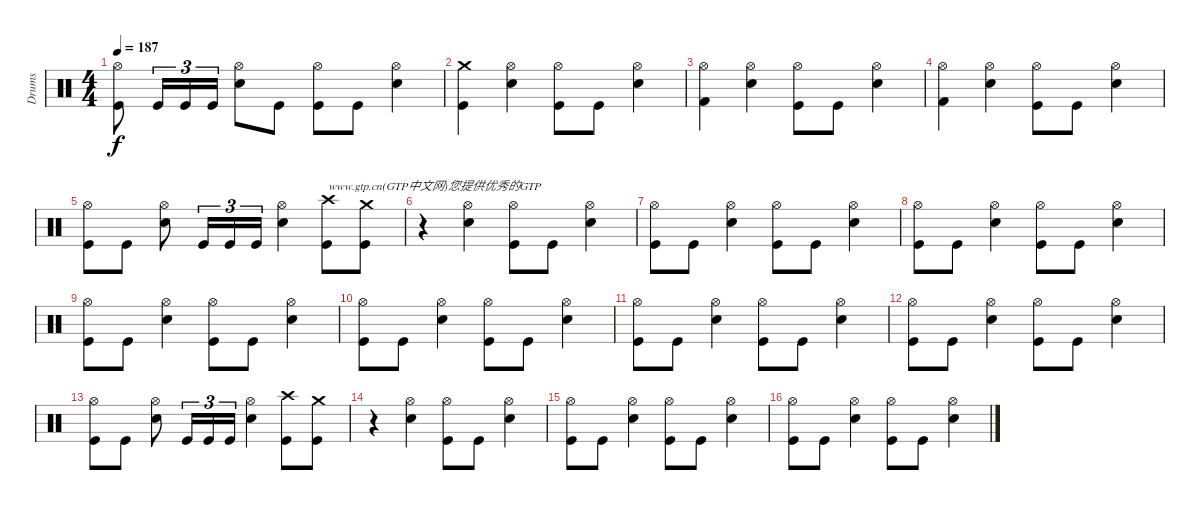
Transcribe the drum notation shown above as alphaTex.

\track ("Drums" "Drums") {instrument percussion}
\staff {score}
\articulation defaults
\ts (4 4)
\tempo 187
\clef neutral
\ks c
("Hi-Hat (open)" "Kick (hit)").8{dy f} "Kick (hit)".16{tu (3 2)} "Kick (hit)".16{tu (3 2)} "Kick (hit)".16{tu (3 2)} ("Hi-Hat (open)" "Snare (hit) 2").8 "Kick (hit)".8 ("Hi-Hat (open)" "Kick (hit)").8 "Kick (hit)".8 ("Hi-Hat (open)" "Snare (hit) 2").4 |
("Crash medium (hit)" "Kick (hit)").4 ("Hi-Hat (open)" "Snare (hit) 2").4 ("Hi-Hat (open)" "Kick (hit)").8 "Kick (hit)".8 ("Hi-Hat (open)" "Snare (hit) 2").4 |
("Hi-Hat (open)" "Kick (hit) 2").4 ("Hi-Hat (open)" "Snare (hit) 2").4 ("Hi-Hat (open)" "Kick (hit)").8 "Kick (hit)".8 ("Hi-Hat (open)" "Snare (hit) 2").4 |
("Hi-Hat (open)" "Kick (hit) 2").4 ("Hi-Hat (open)" "Snare (hit) 2").4 ("Hi-Hat (open)" "Kick (hit)").8 "Kick (hit)".8 ("Hi-Hat (open)" "Snare (hit) 2").4 |
("Hi-Hat (open)" "Kick (hit)").8 "Kick (hit)".8 ("Hi-Hat (open)" "Snare (hit) 2").8 "Kick (hit)".16{tu (3 2)} "Kick (hit)".16{tu (3 2)} "Kick (hit)".16{tu (3 2)} ("Hi-Hat (open)" "Snare (hit) 2").4 ("Crash high (hit)" "Kick (hit)").8{txt "www.gtp.cn(GTP中文网)您提供优秀的GTP"} ("Crash medium (hit)" "Kick (hit)").8 |
r.4 ("Hi-Hat (open)" "Snare (hit) 2").4 ("Hi-Hat (open)" "Kick (hit)").8 "Kick (hit)".8 ("Hi-Hat (open)" "Snare (hit) 2").4 |
("Hi-Hat (open)" "Kick (hit)").8 "Kick (hit)".8 ("Hi-Hat (open)" "Snare (hit) 2").4 ("Hi-Hat (open)" "Kick (hit)").8 "Kick (hit)".8 ("Hi-Hat (open)" "Snare (hit) 2").4 |
("Hi-Hat (open)" "Kick (hit)").8 "Kick (hit)".8 ("Hi-Hat (open)" "Snare (hit) 2").4 ("Hi-Hat (open)" "Kick (hit)").8 "Kick (hit)".8 ("Hi-Hat (open)" "Snare (hit) 2").4 |
("Hi-Hat (open)" "Kick (hit)").8 "Kick (hit)".8 ("Hi-Hat (open)" "Snare (hit) 2").4 ("Hi-Hat (open)" "Kick (hit)").8 "Kick (hit)".8 ("Hi-Hat (open)" "Snare (hit) 2").4 |
("Hi-Hat (open)" "Kick (hit)").8 "Kick (hit)".8 ("Hi-Hat (open)" "Snare (hit) 2").4 ("Hi-Hat (open)" "Kick (hit)").8 "Kick (hit)".8 ("Hi-Hat (open)" "Snare (hit) 2").4 |
("Hi-Hat (open)" "Kick (hit)").8 "Kick (hit)".8 ("Hi-Hat (open)" "Snare (hit) 2").4 ("Hi-Hat (open)" "Kick (hit)").8 "Kick (hit)".8 ("Hi-Hat (open)" "Snare (hit) 2").4 |
("Hi-Hat (open)" "Kick (hit)").8 "Kick (hit)".8 ("Hi-Hat (open)" "Snare (hit) 2").4 ("Hi-Hat (open)" "Kick (hit)").8 "Kick (hit)".8 ("Hi-Hat (open)" "Snare (hit) 2").4 |
("Hi-Hat (open)" "Kick (hit)").8 "Kick (hit)".8 ("Hi-Hat (open)" "Snare (hit) 2").8 "Kick (hit)".16{tu (3 2)} "Kick (hit)".16{tu (3 2)} "Kick (hit)".16{tu (3 2)} ("Hi-Hat (open)" "Snare (hit) 2").4 ("Crash high (hit)" "Kick (hit)").8 ("Crash medium (hit)" "Kick (hit)").8 |
r.4 ("Hi-Hat (open)" "Snare (hit) 2").4 ("Hi-Hat (open)" "Kick (hit)").8 "Kick (hit)".8 ("Hi-Hat (open)" "Snare (hit) 2").4 |
("Hi-Hat (open)" "Kick (hit)").8 "Kick (hit)".8 ("Hi-Hat (open)" "Snare (hit) 2").4 ("Hi-Hat (open)" "Kick (hit)").8 "Kick (hit)".8 ("Hi-Hat (open)" "Snare (hit) 2").4 |
("Hi-Hat (open)" "Kick (hit)").8 "Kick (hit)".8 ("Hi-Hat (open)" "Snare (hit) 2").4 ("Hi-Hat (open)" "Kick (hit)").8 "Kick (hit)".8 ("Hi-Hat (open)" "Snare (hit) 2").4
